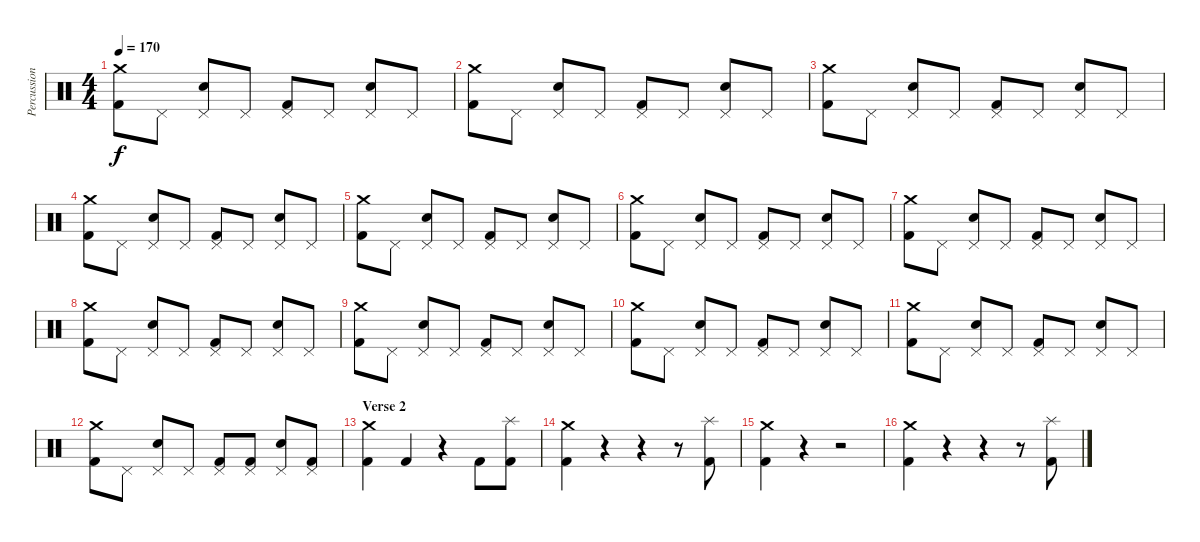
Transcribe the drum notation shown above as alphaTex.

\track ("Percussions" "Percussion") {instrument percussion}
\staff {score}
\articulation defaults
\ts (4 4)
\tempo 170
\clef neutral
\ks c
("Crash medium (hit)" "Kick (hit) 2").8{dy f} "Pedal Hi-Hat (hit)".8 ("Pedal Hi-Hat (hit)" "Snare (hit) 2").8 "Pedal Hi-Hat (hit)".8 ("Pedal Hi-Hat (hit)" "Kick (hit) 2").8 "Pedal Hi-Hat (hit)".8 ("Pedal Hi-Hat (hit)" "Snare (hit) 2").8 "Pedal Hi-Hat (hit)".8 |
("Crash medium (hit)" "Kick (hit) 2").8 "Pedal Hi-Hat (hit)".8 ("Pedal Hi-Hat (hit)" "Snare (hit) 2").8 "Pedal Hi-Hat (hit)".8 ("Pedal Hi-Hat (hit)" "Kick (hit) 2").8 "Pedal Hi-Hat (hit)".8 ("Pedal Hi-Hat (hit)" "Snare (hit) 2").8 "Pedal Hi-Hat (hit)".8 |
("Crash medium (hit)" "Kick (hit) 2").8 "Pedal Hi-Hat (hit)".8 ("Pedal Hi-Hat (hit)" "Snare (hit) 2").8 "Pedal Hi-Hat (hit)".8 ("Pedal Hi-Hat (hit)" "Kick (hit) 2").8 "Pedal Hi-Hat (hit)".8 ("Pedal Hi-Hat (hit)" "Snare (hit) 2").8 "Pedal Hi-Hat (hit)".8 |
("Crash medium (hit)" "Kick (hit) 2").8 "Pedal Hi-Hat (hit)".8 ("Pedal Hi-Hat (hit)" "Snare (hit) 2").8 "Pedal Hi-Hat (hit)".8 ("Pedal Hi-Hat (hit)" "Kick (hit) 2").8 "Pedal Hi-Hat (hit)".8 ("Pedal Hi-Hat (hit)" "Snare (hit) 2").8 "Pedal Hi-Hat (hit)".8 |
("Crash medium (hit)" "Kick (hit) 2").8 "Pedal Hi-Hat (hit)".8 ("Pedal Hi-Hat (hit)" "Snare (hit) 2").8 "Pedal Hi-Hat (hit)".8 ("Pedal Hi-Hat (hit)" "Kick (hit) 2").8 "Pedal Hi-Hat (hit)".8 ("Pedal Hi-Hat (hit)" "Snare (hit) 2").8 "Pedal Hi-Hat (hit)".8 |
("Crash medium (hit)" "Kick (hit) 2").8 "Pedal Hi-Hat (hit)".8 ("Pedal Hi-Hat (hit)" "Snare (hit) 2").8 "Pedal Hi-Hat (hit)".8 ("Pedal Hi-Hat (hit)" "Kick (hit) 2").8 "Pedal Hi-Hat (hit)".8 ("Pedal Hi-Hat (hit)" "Snare (hit) 2").8 "Pedal Hi-Hat (hit)".8 |
("Crash medium (hit)" "Kick (hit) 2").8 "Pedal Hi-Hat (hit)".8 ("Pedal Hi-Hat (hit)" "Snare (hit) 2").8 "Pedal Hi-Hat (hit)".8 ("Pedal Hi-Hat (hit)" "Kick (hit) 2").8 "Pedal Hi-Hat (hit)".8 ("Pedal Hi-Hat (hit)" "Snare (hit) 2").8 "Pedal Hi-Hat (hit)".8 |
("Crash medium (hit)" "Kick (hit) 2").8 "Pedal Hi-Hat (hit)".8 ("Pedal Hi-Hat (hit)" "Snare (hit) 2").8 "Pedal Hi-Hat (hit)".8 ("Pedal Hi-Hat (hit)" "Kick (hit) 2").8 "Pedal Hi-Hat (hit)".8 ("Pedal Hi-Hat (hit)" "Snare (hit) 2").8 "Pedal Hi-Hat (hit)".8 |
("Crash medium (hit)" "Kick (hit) 2").8 "Pedal Hi-Hat (hit)".8 ("Pedal Hi-Hat (hit)" "Snare (hit) 2").8 "Pedal Hi-Hat (hit)".8 ("Pedal Hi-Hat (hit)" "Kick (hit) 2").8 "Pedal Hi-Hat (hit)".8 ("Pedal Hi-Hat (hit)" "Snare (hit) 2").8 "Pedal Hi-Hat (hit)".8 |
("Crash medium (hit)" "Kick (hit) 2").8 "Pedal Hi-Hat (hit)".8 ("Pedal Hi-Hat (hit)" "Snare (hit) 2").8 "Pedal Hi-Hat (hit)".8 ("Pedal Hi-Hat (hit)" "Kick (hit) 2").8 "Pedal Hi-Hat (hit)".8 ("Pedal Hi-Hat (hit)" "Snare (hit) 2").8 "Pedal Hi-Hat (hit)".8 |
("Crash medium (hit)" "Kick (hit) 2").8 "Pedal Hi-Hat (hit)".8 ("Pedal Hi-Hat (hit)" "Snare (hit) 2").8 "Pedal Hi-Hat (hit)".8 ("Pedal Hi-Hat (hit)" "Kick (hit) 2").8 "Pedal Hi-Hat (hit)".8 ("Pedal Hi-Hat (hit)" "Snare (hit) 2").8 "Pedal Hi-Hat (hit)".8 |
("Crash medium (hit)" "Kick (hit) 2").8 "Pedal Hi-Hat (hit)".8 ("Pedal Hi-Hat (hit)" "Snare (hit) 2").8 "Pedal Hi-Hat (hit)".8 ("Pedal Hi-Hat (hit)" "Kick (hit) 2").8 ("Pedal Hi-Hat (hit)" "Kick (hit) 2").8 ("Pedal Hi-Hat (hit)" "Snare (hit) 2").8 ("Pedal Hi-Hat (hit)" "Kick (hit) 2").8 |
\section ("" "Verse 2")
("Crash medium (hit)" "Kick (hit) 2").4 "Kick (hit) 2".4 r.4 "Kick (hit) 2".8 ("Splash (hit)" "Kick (hit) 2").8 |
("Crash medium (hit)" "Kick (hit) 2").4 r.4 r.4 r.8 ("Splash (hit)" "Kick (hit) 2").8 |
("Crash medium (hit)" "Kick (hit) 2").4 r.4 r.2 |
("Crash medium (hit)" "Kick (hit) 2").4 r.4 r.4 r.8 ("Splash (hit)" "Kick (hit) 2").8
